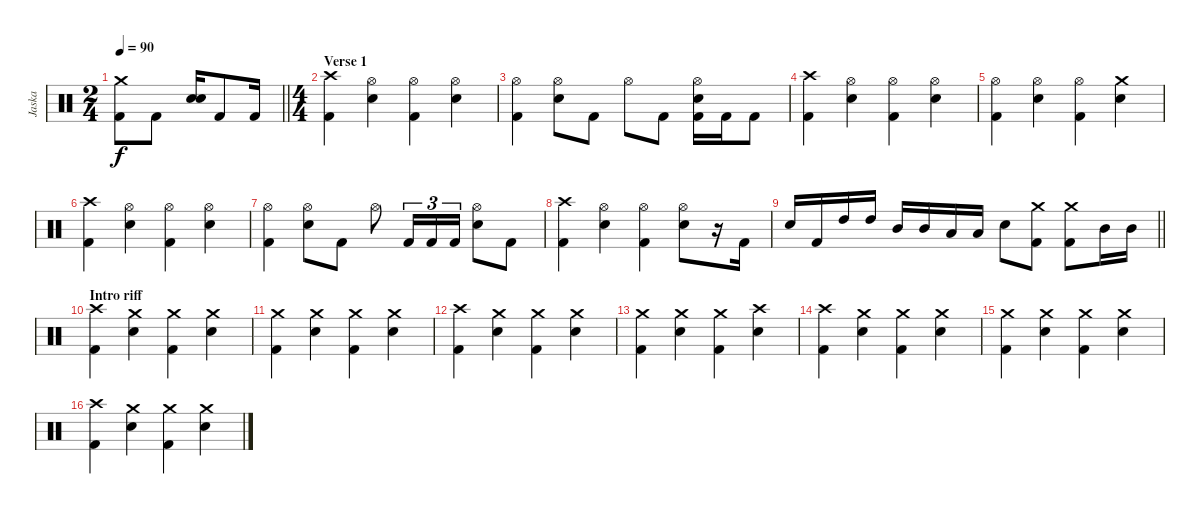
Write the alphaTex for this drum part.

\track ("Jaska" "Jaska") {instrument percussion}
\staff {score}
\articulation defaults
\ts (2 4)
\tempo 90
\clef neutral
\barLineRight lightlight
\ks c
("Crash medium (hit)" "Kick (hit) 2").8{dy f} "Kick (hit) 2".8 ("Snare (hit) 2" "Snare (hit) 2").16 "Kick (hit) 2".8 "Kick (hit) 2".16 |
\ts (4 4)
\section ("" "Verse 1")
("Crash high (hit)" "Kick (hit) 2").4 ("Hi-Hat (open)" "Snare (hit) 2").4 ("Hi-Hat (open)" "Kick (hit) 2").4 ("Hi-Hat (open)" "Snare (hit) 2").4 |
("Hi-Hat (open)" "Kick (hit) 2").4 ("Hi-Hat (open)" "Snare (hit) 2").8 "Kick (hit) 2".8 "Hi-Hat (open)".8 "Kick (hit) 2".8 ("Hi-Hat (open)" "Snare (hit) 2" "Kick (hit) 2").16 "Kick (hit) 2".16 "Kick (hit) 2".8 |
("Crash high (hit)" "Kick (hit) 2").4 ("Hi-Hat (open)" "Snare (hit) 2").4 ("Hi-Hat (open)" "Kick (hit) 2").4 ("Hi-Hat (open)" "Snare (hit) 2").4 |
("Hi-Hat (open)" "Kick (hit) 2").4 ("Hi-Hat (open)" "Snare (hit) 2").4 ("Hi-Hat (open)" "Kick (hit) 2").4 ("Crash medium (hit)" "Snare (hit) 2").4 |
("Crash high (hit)" "Kick (hit) 2").4 ("Hi-Hat (open)" "Snare (hit) 2").4 ("Hi-Hat (open)" "Kick (hit) 2").4 ("Hi-Hat (open)" "Snare (hit) 2").4 |
("Hi-Hat (open)" "Kick (hit) 2").4 ("Hi-Hat (open)" "Snare (hit) 2").8 "Kick (hit) 2".8 "Hi-Hat (open)".8 "Kick (hit) 2".16{tu (3 2)} "Kick (hit) 2".16{tu (3 2)} "Kick (hit) 2".16{tu (3 2)} ("Hi-Hat (open)" "Snare (hit) 2").8 "Kick (hit) 2".8 |
("Crash high (hit)" "Kick (hit) 2").4 ("Hi-Hat (open)" "Snare (hit) 2").4 ("Hi-Hat (open)" "Kick (hit) 2").4 ("Hi-Hat (open)" "Snare (hit) 2").8 r.16 "Kick (hit) 2".16 |
\barLineRight lightlight "Snare (hit) 2".16 "Kick (hit) 2".16 "High Tom (hit)".16 "High Tom (hit)".16 "Mid Tom (hit)".16 "Mid Tom (hit)".16 "Low Tom (hit)".16 "Low Tom (hit)".16 "Snare (hit) 2".8
("Crash medium (hit)" "Kick (hit) 2").8 ("Crash medium (hit)" "Kick (hit) 2").8 "Mid Tom (hit)".16 "Mid Tom (hit)".16 |
\section ("" "Intro riff")
("Crash high (hit)" "Kick (hit) 2").4 ("Crash medium (hit)" "Snare (hit) 2").4 ("Crash medium (hit)" "Kick (hit) 2").4 ("Crash medium (hit)" "Snare (hit) 2").4 |
("Crash medium (hit)" "Kick (hit) 2").4 ("Crash medium (hit)" "Snare (hit) 2").4 ("Crash medium (hit)" "Kick (hit) 2").4 ("Crash medium (hit)" "Snare (hit) 2").4 |
("Crash high (hit)" "Kick (hit) 2").4 ("Crash medium (hit)" "Snare (hit) 2").4 ("Crash medium (hit)" "Kick (hit) 2").4 ("Crash medium (hit)" "Snare (hit) 2").4 |
("Crash medium (hit)" "Kick (hit) 2").4 ("Crash medium (hit)" "Snare (hit) 2").4 ("Crash medium (hit)" "Kick (hit) 2").4 ("Crash high (hit)" "Snare (hit) 2").4 |
("Crash high (hit)" "Kick (hit) 2").4 ("Crash medium (hit)" "Snare (hit) 2").4 ("Crash medium (hit)" "Kick (hit) 2").4 ("Crash medium (hit)" "Snare (hit) 2").4 |
("Crash medium (hit)" "Kick (hit) 2").4 ("Crash medium (hit)" "Snare (hit) 2").4 ("Crash medium (hit)" "Kick (hit) 2").4 ("Crash medium (hit)" "Snare (hit) 2").4 |
("Crash high (hit)" "Kick (hit) 2").4 ("Crash medium (hit)" "Snare (hit) 2").4 ("Crash medium (hit)" "Kick (hit) 2").4 ("Crash medium (hit)" "Snare (hit) 2").4
